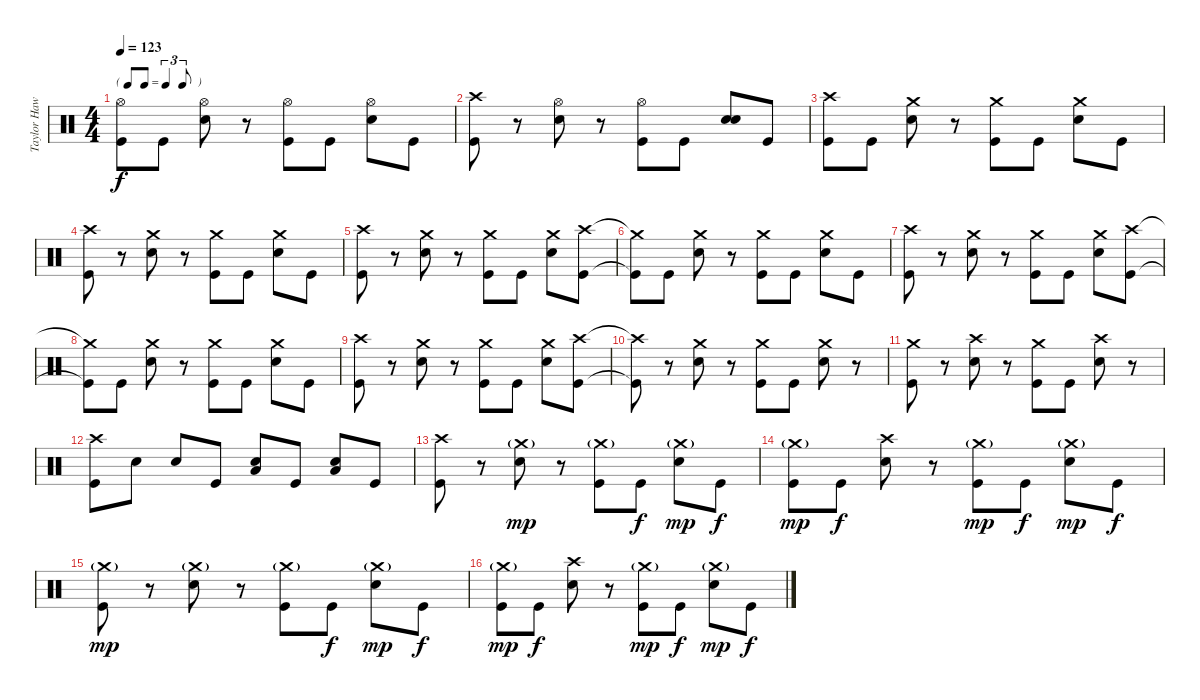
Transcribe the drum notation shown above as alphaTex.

\track ("Taylor Hawkins - Drums" "Taylor Haw") {instrument percussion}
\staff {score}
\articulation defaults
\ts (4 4)
\tf triplet8th
\tempo 123
\clef neutral
\ks c
("Hi-Hat (open)" "Kick (hit)").8{dy f} "Kick (hit)".8 ("Hi-Hat (open)" "Electric Snare (hit)").8 r.8 ("Hi-Hat (open)" "Kick (hit)").8 "Kick (hit)".8 ("Hi-Hat (open)" "Electric Snare (hit)").8 "Kick (hit)".8 |
("Crash high (hit)" "Kick (hit)").8 r.8 ("Hi-Hat (open)" "Electric Snare (hit)").8 r.8 ("Hi-Hat (open)" "Kick (hit)").8 "Kick (hit)".8 ("Snare (hit) 2" "Electric Snare (hit)").8 "Kick (hit)".8 |
("Crash high (hit)" "Kick (hit)").8 "Kick (hit)".8 ("Crash medium (hit)" "Electric Snare (hit)").8 r.8 ("Crash medium (hit)" "Kick (hit)").8 "Kick (hit)".8 ("Crash medium (hit)" "Electric Snare (hit)").8 "Kick (hit)".8 |
("Crash high (hit)" "Kick (hit)").8 r.8 ("Crash medium (hit)" "Electric Snare (hit)").8 r.8 ("Crash medium (hit)" "Kick (hit)").8 "Kick (hit)".8 ("Crash medium (hit)" "Electric Snare (hit)").8 "Kick (hit)".8 |
("Crash high (hit)" "Kick (hit)").8 r.8 ("Crash medium (hit)" "Electric Snare (hit)").8 r.8 ("Crash medium (hit)" "Kick (hit)").8 "Kick (hit)".8 ("Crash medium (hit)" "Electric Snare (hit)").8 ("Crash high (hit)" "Kick (hit)").8 |
("Crash medium (hit)"{t} "Kick (hit)"{t}).8 "Kick (hit)".8 ("Crash medium (hit)" "Electric Snare (hit)").8 r.8 ("Crash medium (hit)" "Kick (hit)").8 "Kick (hit)".8 ("Crash medium (hit)" "Electric Snare (hit)").8 "Kick (hit)".8 |
("Crash high (hit)" "Kick (hit)").8 r.8 ("Crash medium (hit)" "Electric Snare (hit)").8 r.8 ("Crash medium (hit)" "Kick (hit)").8 "Kick (hit)".8 ("Crash medium (hit)" "Electric Snare (hit)").8 ("Crash high (hit)" "Kick (hit)").8 |
("Crash medium (hit)"{t} "Kick (hit)"{t}).8 "Kick (hit)".8 ("Crash medium (hit)" "Electric Snare (hit)").8 r.8 ("Crash medium (hit)" "Kick (hit)").8 "Kick (hit)".8 ("Crash medium (hit)" "Electric Snare (hit)").8 "Kick (hit)".8 |
("Crash high (hit)" "Kick (hit)").8 r.8 ("Crash medium (hit)" "Electric Snare (hit)").8 r.8 ("Crash medium (hit)" "Kick (hit)").8 "Kick (hit)".8 ("Crash medium (hit)" "Electric Snare (hit)").8 ("Crash high (hit)" "Kick (hit)").8 |
("Crash high (hit)"{t} "Kick (hit)"{t}).8 r.8 ("Crash medium (hit)" "Electric Snare (hit)").8 r.8 ("Crash medium (hit)" "Kick (hit)").8 "Kick (hit)".8 ("Crash medium (hit)" "Electric Snare (hit)").8 r.8 |
("Crash medium (hit)" "Kick (hit)").8 r.8 ("Crash high (hit)" "Electric Snare (hit)").8 r.8 ("Crash medium (hit)" "Kick (hit)").8 "Kick (hit)".8 ("Crash high (hit)" "Electric Snare (hit)").8 r.8 |
("Crash high (hit)" "Kick (hit)").8 "Electric Snare (hit)".8 "Electric Snare (hit)".8 "Kick (hit)".8 ("Electric Snare (hit)" "Low Tom (hit)").8 "Kick (hit)".8 ("Electric Snare (hit)" "Low Floor Tom (hit)").8 "Kick (hit)".8 |
("Crash high (hit)" "Kick (hit)").8 r.8 ("Crash medium (hit)"{g} "Electric Snare (hit)").8{dy mp} r.8 ("Crash medium (hit)"{g} "Kick (hit)").8 "Kick (hit)".8{dy f} ("Crash medium (hit)"{g} "Electric Snare (hit)").8{dy mp} "Kick (hit)".8{dy f} |
("Crash medium (hit)"{g} "Kick (hit)").8{dy mp} "Kick (hit)".8{dy f} ("Crash high (hit)" "Electric Snare (hit)").8 r.8 ("Crash medium (hit)"{g} "Kick (hit)").8{dy mp} "Kick (hit)".8{dy f} ("Crash medium (hit)"{g} "Electric Snare (hit)").8{dy mp} "Kick (hit)".8{dy f} |
("Crash medium (hit)"{g} "Kick (hit)").8{dy mp} r.8 ("Crash medium (hit)"{g} "Electric Snare (hit)").8 r.8 ("Crash medium (hit)"{g} "Kick (hit)").8 "Kick (hit)".8{dy f} ("Crash medium (hit)"{g} "Electric Snare (hit)").8{dy mp} "Kick (hit)".8{dy f} |
("Crash medium (hit)"{g} "Kick (hit)").8{dy mp} "Kick (hit)".8{dy f} ("Crash high (hit)" "Electric Snare (hit)").8 r.8 ("Crash medium (hit)"{g} "Kick (hit)").8{dy mp} "Kick (hit)".8{dy f} ("Crash medium (hit)"{g} "Electric Snare (hit)").8{dy mp} "Kick (hit)".8{dy f}
